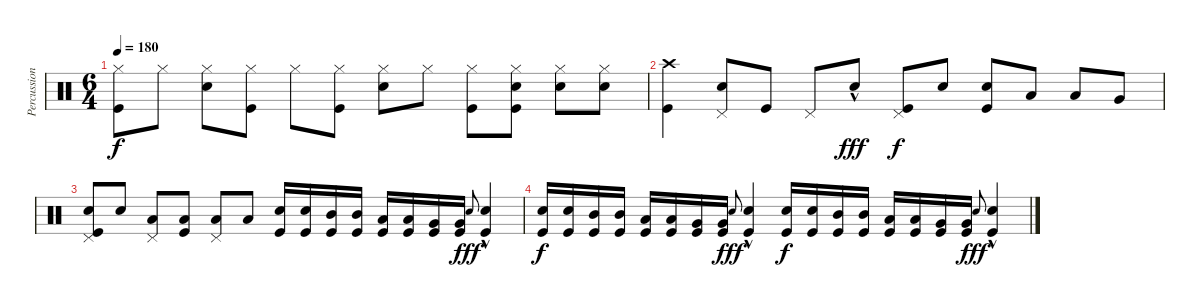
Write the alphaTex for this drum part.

\track ("Percussions" "Percussion") {instrument percussion}
\staff {score}
\articulation defaults
\ts (6 4)
\tempo 180
\clef neutral
\ks c
("Hi-Hat (closed)" "Kick (hit)").8{dy f} "Hi-Hat (closed)".8 ("Snare (hit) 2" "Hi-Hat (closed)").8 ("Hi-Hat (closed)" "Kick (hit)").8 "Hi-Hat (closed)".8 ("Hi-Hat (closed)" "Kick (hit)").8 ("Snare (hit) 2" "Hi-Hat (closed)").8 "Hi-Hat (closed)".8 ("Hi-Hat (closed)" "Kick (hit)").8 ("Kick (hit)" "Hi-Hat (closed)" "Snare (hit) 2").8 ("Snare (hit) 2" "Hi-Hat (closed)").8 ("Hi-Hat (closed)" "Snare (hit) 2").8 |
("Crash high (hit)" "Kick (hit)").4 ("Snare (hit) 2" "Pedal Hi-Hat (hit)").8 "Kick (hit)".8 "Pedal Hi-Hat (hit)".8 "Snare (hit) 2"{hac}.8{dy fff} ("Kick (hit)" "Pedal Hi-Hat (hit)").8{dy f} "Snare (hit) 2".8 ("Kick (hit)" "Snare (hit) 2").8 "Low Tom (hit)".8 "Low Tom (hit)".8 "Very Low Tom (hit)".8 |
("Pedal Hi-Hat (hit)" "Kick (hit)" "Snare (hit) 2").8 "Snare (hit) 2".8 ("Low Tom (hit)" "Pedal Hi-Hat (hit)").8 ("Kick (hit)" "Low Tom (hit)").8 ("Low Tom (hit)" "Pedal Hi-Hat (hit)").8 "Low Tom (hit)".8 ("Snare (hit) 2" "Kick (hit)").16 ("Snare (hit) 2" "Kick (hit)").16 ("Kick (hit)" "Mid Tom (hit)").16 ("Kick (hit)" "Mid Tom (hit)").16{beam split} ("Low Tom (hit)" "Kick (hit)").16 ("Kick (hit)" "Low Tom (hit)").16 ("Very Low Tom (hit)" "Kick (hit)").16 ("Very Low Tom (hit)" "Kick (hit)").16 "Snare (hit) 2".8{gr onbeat dy fff} ("Snare (hit) 2"{hac} "Kick (hit)").4 |
("Snare (hit) 2" "Kick (hit)").16{dy f} ("Snare (hit) 2" "Kick (hit)").16 ("Kick (hit)" "Mid Tom (hit)").16 ("Kick (hit)" "Mid Tom (hit)").16{beam split} ("Low Tom (hit)" "Kick (hit)").16 ("Kick (hit)" "Low Tom (hit)").16 ("Very Low Tom (hit)" "Kick (hit)").16 ("Very Low Tom (hit)" "Kick (hit)").16 "Snare (hit) 2".8{gr onbeat dy fff} ("Snare (hit) 2"{hac} "Kick (hit)").4 ("Snare (hit) 2" "Kick (hit)").16{dy f} ("Snare (hit) 2" "Kick (hit)").16 ("Kick (hit)" "Mid Tom (hit)").16 ("Kick (hit)" "Mid Tom (hit)").16{beam split} ("Low Tom (hit)" "Kick (hit)").16 ("Kick (hit)" "Low Tom (hit)").16 ("Very Low Tom (hit)" "Kick (hit)").16 ("Very Low Tom (hit)" "Kick (hit)").16 "Snare (hit) 2".8{gr onbeat dy fff} ("Snare (hit) 2"{hac} "Kick (hit)").4
